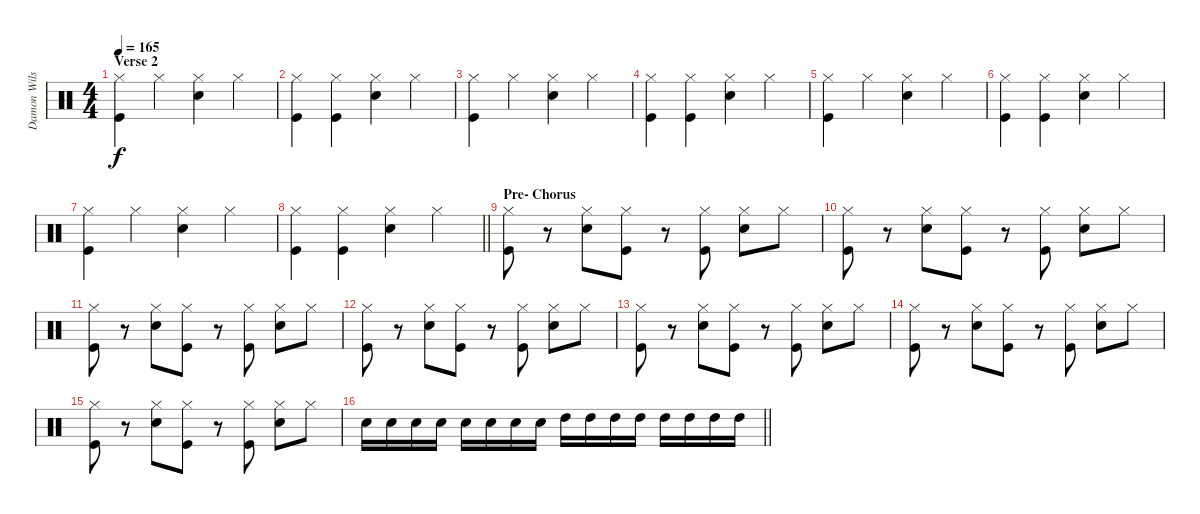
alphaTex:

\track ("Damon Wilson" "Damon Wils") {instrument percussion}
\staff {score}
\articulation defaults
\ts (4 4)
\section ("" "Verse 2")
\tempo 165
\clef neutral
\ks c
("Hi-Hat (closed)" "Kick (hit)").4{dy f} "Hi-Hat (closed)".4 ("Hi-Hat (closed)" "Snare (hit) 2").4 "Hi-Hat (closed)".4 |
("Hi-Hat (closed)" "Kick (hit)").4 ("Hi-Hat (closed)" "Kick (hit)").4 ("Hi-Hat (closed)" "Snare (hit) 2").4 "Hi-Hat (closed)".4 |
("Hi-Hat (closed)" "Kick (hit)").4 "Hi-Hat (closed)".4 ("Hi-Hat (closed)" "Snare (hit) 2").4 "Hi-Hat (closed)".4 |
("Hi-Hat (closed)" "Kick (hit)").4 ("Hi-Hat (closed)" "Kick (hit)").4 ("Hi-Hat (closed)" "Snare (hit) 2").4 "Hi-Hat (closed)".4 |
("Hi-Hat (closed)" "Kick (hit)").4 "Hi-Hat (closed)".4 ("Hi-Hat (closed)" "Snare (hit) 2").4 "Hi-Hat (closed)".4 |
("Hi-Hat (closed)" "Kick (hit)").4 ("Hi-Hat (closed)" "Kick (hit)").4 ("Hi-Hat (closed)" "Snare (hit) 2").4 "Hi-Hat (closed)".4 |
("Hi-Hat (closed)" "Kick (hit)").4 "Hi-Hat (closed)".4 ("Hi-Hat (closed)" "Snare (hit) 2").4 "Hi-Hat (closed)".4 |
\barLineRight lightlight
("Hi-Hat (closed)" "Kick (hit)").4 ("Hi-Hat (closed)" "Kick (hit)").4 ("Hi-Hat (closed)" "Snare (hit) 2").4 "Hi-Hat (closed)".4 |
\section ("" "Pre- Chorus")
("Hi-Hat (closed)" "Kick (hit)").8 r.8 ("Hi-Hat (closed)" "Snare (hit) 2").8 ("Hi-Hat (closed)" "Kick (hit)").8 r.8 ("Hi-Hat (closed)" "Kick (hit)").8 ("Hi-Hat (closed)" "Snare (hit) 2").8 "Hi-Hat (closed)".8 |
("Hi-Hat (closed)" "Kick (hit)").8 r.8 ("Hi-Hat (closed)" "Snare (hit) 2").8 ("Hi-Hat (closed)" "Kick (hit)").8 r.8 ("Hi-Hat (closed)" "Kick (hit)").8 ("Hi-Hat (closed)" "Snare (hit) 2").8 "Hi-Hat (closed)".8 |
("Hi-Hat (closed)" "Kick (hit)").8 r.8 ("Hi-Hat (closed)" "Snare (hit) 2").8 ("Hi-Hat (closed)" "Kick (hit)").8 r.8 ("Hi-Hat (closed)" "Kick (hit)").8 ("Hi-Hat (closed)" "Snare (hit) 2").8 "Hi-Hat (closed)".8 |
("Hi-Hat (closed)" "Kick (hit)").8 r.8 ("Hi-Hat (closed)" "Snare (hit) 2").8 ("Hi-Hat (closed)" "Kick (hit)").8 r.8 ("Hi-Hat (closed)" "Kick (hit)").8 ("Hi-Hat (closed)" "Snare (hit) 2").8 "Hi-Hat (closed)".8 |
("Hi-Hat (closed)" "Kick (hit)").8 r.8 ("Hi-Hat (closed)" "Snare (hit) 2").8 ("Hi-Hat (closed)" "Kick (hit)").8 r.8 ("Hi-Hat (closed)" "Kick (hit)").8 ("Hi-Hat (closed)" "Snare (hit) 2").8 "Hi-Hat (closed)".8 |
("Hi-Hat (closed)" "Kick (hit)").8 r.8 ("Hi-Hat (closed)" "Snare (hit) 2").8 ("Hi-Hat (closed)" "Kick (hit)").8 r.8 ("Hi-Hat (closed)" "Kick (hit)").8 ("Hi-Hat (closed)" "Snare (hit) 2").8 "Hi-Hat (closed)".8 |
("Hi-Hat (closed)" "Kick (hit)").8 r.8 ("Hi-Hat (closed)" "Snare (hit) 2").8 ("Hi-Hat (closed)" "Kick (hit)").8 r.8 ("Hi-Hat (closed)" "Kick (hit)").8 ("Hi-Hat (closed)" "Snare (hit) 2").8 "Hi-Hat (closed)".8 |
\barLineRight lightlight "Snare (hit) 2".16 "Snare (hit) 2".16 "Snare (hit) 2".16 "Snare (hit) 2".16 "Snare (hit) 2".16 "Snare (hit) 2".16 "Snare (hit) 2".16 "Snare (hit) 2".16 "High Tom (hit)".16 "High Tom (hit)".16 "High Tom (hit)".16 "High Tom (hit)".16 "High Tom (hit)".16 "High Tom (hit)".16 "High Tom (hit)".16 "High Tom (hit)".16
